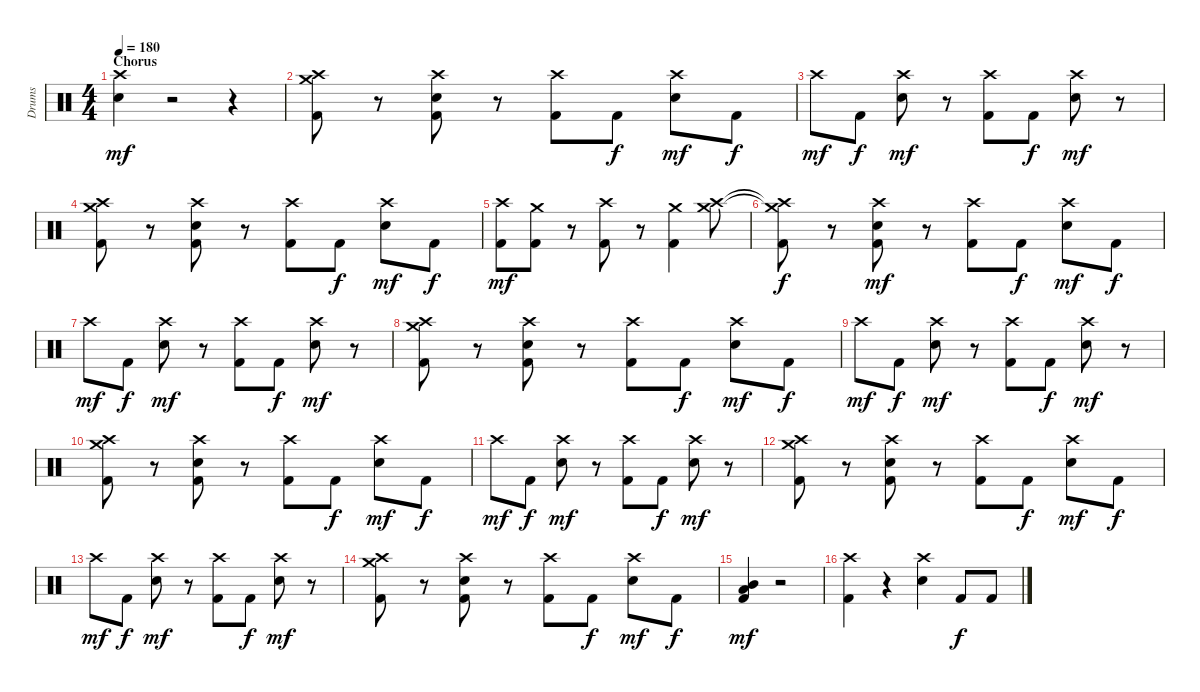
\track ("Drums" "Drums") {instrument percussion}
\staff {score}
\articulation defaults
\ts (4 4)
\section ("" "Chorus")
\tempo 180
\clef neutral
\ks c
("Crash high (hit)" "Electric Snare (hit)").4{dy mf} r.2 r.4 |
("Crash high (hit)" "Crash medium (hit)" "Kick (hit) 2").8 r.8 ("Crash high (hit)" "Electric Snare (hit)" "Kick (hit) 2").8 r.8 ("Crash high (hit)" "Kick (hit) 2").8 "Kick (hit) 2".8{dy f} ("Crash high (hit)" "Electric Snare (hit)").8{dy mf} "Kick (hit) 2".8{dy f} |
"Crash high (hit)".8{dy mf} "Kick (hit) 2".8{dy f} ("Crash high (hit)" "Electric Snare (hit)").8{dy mf} r.8 ("Crash high (hit)" "Kick (hit) 2").8 "Kick (hit) 2".8{dy f} ("Crash high (hit)" "Electric Snare (hit)").8{dy mf} r.8 |
("Crash high (hit)" "Crash medium (hit)" "Kick (hit) 2").8 r.8 ("Crash high (hit)" "Electric Snare (hit)" "Kick (hit) 2").8 r.8 ("Crash high (hit)" "Kick (hit) 2").8 "Kick (hit) 2".8{dy f} ("Crash high (hit)" "Electric Snare (hit)").8{dy mf} "Kick (hit) 2".8{dy f} |
("Crash high (hit)" "Kick (hit) 2").8{dy mf} ("Crash medium (hit)" "Kick (hit) 2").8 r.8 ("Crash high (hit)" "Kick (hit) 2").8 r.8 ("Crash medium (hit)" "Kick (hit) 2").4 ("Crash high (hit)" "Crash medium (hit)").8 |
("Crash high (hit)"{t} "Crash medium (hit)"{t} "Kick (hit) 2").8{dy f} r.8 ("Crash high (hit)" "Electric Snare (hit)" "Kick (hit) 2").8{dy mf} r.8 ("Crash high (hit)" "Kick (hit) 2").8 "Kick (hit) 2".8{dy f} ("Crash high (hit)" "Electric Snare (hit)").8{dy mf} "Kick (hit) 2".8{dy f} |
"Crash high (hit)".8{dy mf} "Kick (hit) 2".8{dy f} ("Crash high (hit)" "Electric Snare (hit)").8{dy mf} r.8 ("Crash high (hit)" "Kick (hit) 2").8 "Kick (hit) 2".8{dy f} ("Crash high (hit)" "Electric Snare (hit)").8{dy mf} r.8 |
("Crash high (hit)" "Crash medium (hit)" "Kick (hit) 2").8 r.8 ("Crash high (hit)" "Electric Snare (hit)" "Kick (hit) 2").8 r.8 ("Crash high (hit)" "Kick (hit) 2").8 "Kick (hit) 2".8{dy f} ("Crash high (hit)" "Electric Snare (hit)").8{dy mf} "Kick (hit) 2".8{dy f} |
"Crash high (hit)".8{dy mf} "Kick (hit) 2".8{dy f} ("Crash high (hit)" "Electric Snare (hit)").8{dy mf} r.8 ("Crash high (hit)" "Kick (hit) 2").8 "Kick (hit) 2".8{dy f} ("Crash high (hit)" "Electric Snare (hit)").8{dy mf} r.8 |
("Crash high (hit)" "Crash medium (hit)" "Kick (hit) 2").8 r.8 ("Crash high (hit)" "Electric Snare (hit)" "Kick (hit) 2").8 r.8 ("Crash high (hit)" "Kick (hit) 2").8 "Kick (hit) 2".8{dy f} ("Crash high (hit)" "Electric Snare (hit)").8{dy mf} "Kick (hit) 2".8{dy f} |
"Crash high (hit)".8{dy mf} "Kick (hit) 2".8{dy f} ("Crash high (hit)" "Electric Snare (hit)").8{dy mf} r.8 ("Crash high (hit)" "Kick (hit) 2").8 "Kick (hit) 2".8{dy f} ("Crash high (hit)" "Electric Snare (hit)").8{dy mf} r.8 |
("Crash high (hit)" "Crash medium (hit)" "Kick (hit) 2").8 r.8 ("Crash high (hit)" "Electric Snare (hit)" "Kick (hit) 2").8 r.8 ("Crash high (hit)" "Kick (hit) 2").8 "Kick (hit) 2".8{dy f} ("Crash high (hit)" "Electric Snare (hit)").8{dy mf} "Kick (hit) 2".8{dy f} |
"Crash high (hit)".8{dy mf} "Kick (hit) 2".8{dy f} ("Crash high (hit)" "Electric Snare (hit)").8{dy mf} r.8 ("Crash high (hit)" "Kick (hit) 2").8 "Kick (hit) 2".8{dy f} ("Crash high (hit)" "Electric Snare (hit)").8{dy mf} r.8 |
("Crash high (hit)" "Crash medium (hit)" "Kick (hit) 2").8 r.8 ("Crash high (hit)" "Electric Snare (hit)" "Kick (hit) 2").8 r.8 ("Crash high (hit)" "Kick (hit) 2").8 "Kick (hit) 2".8{dy f} ("Crash high (hit)" "Electric Snare (hit)").8{dy mf} "Kick (hit) 2".8{dy f} |
("Low Tom (hit)" "Mid Tom (hit)" "Kick (hit) 2").4{dy mf} r.2 |
("Crash high (hit)" "Kick (hit) 2").4 r.4 ("Crash high (hit)" "Electric Snare (hit)").4 "Kick (hit) 2".8{dy f} "Kick (hit) 2".8
